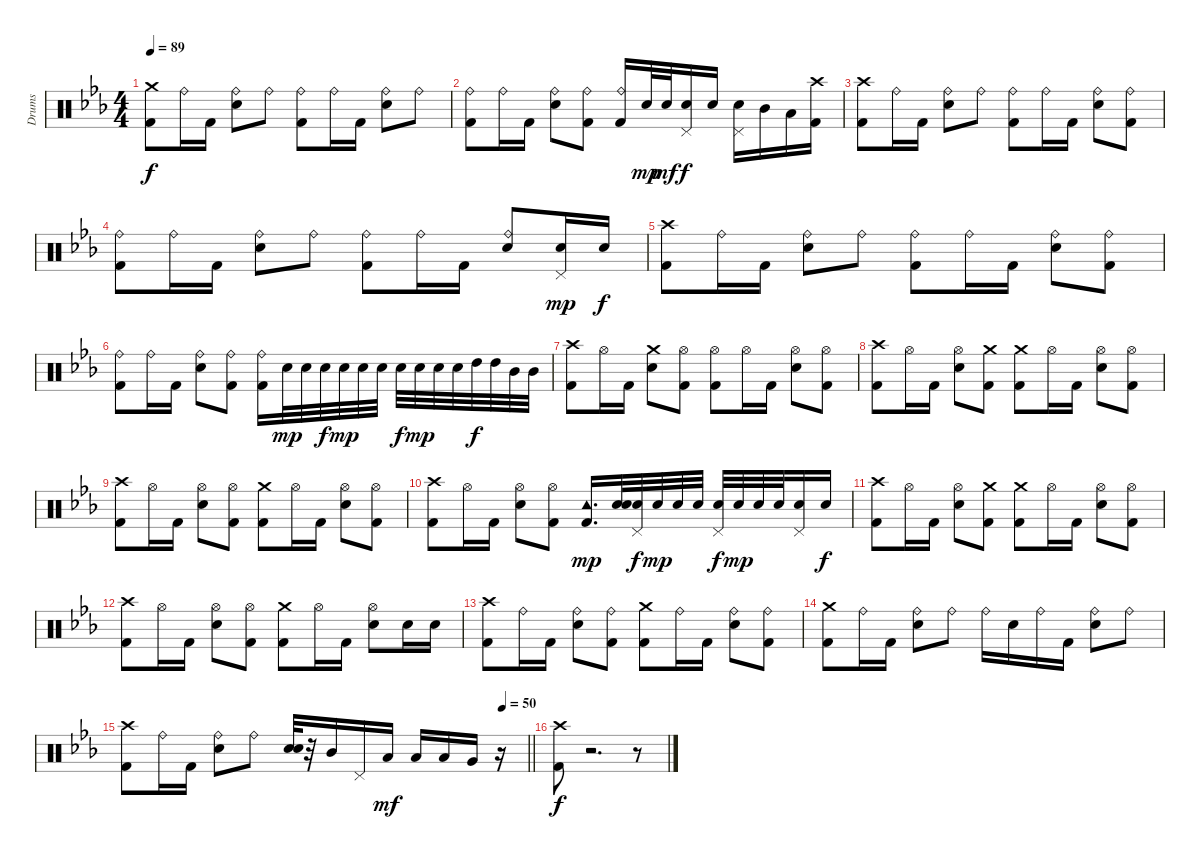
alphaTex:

\track ("Drums" "Drums") {instrument percussion}
\staff {score}
\articulation defaults
\ts (4 4)
\tempo 89
\clef neutral
\ks cminor
("Kick (hit) 2" "Crash medium (hit)").8{dy f} "Ride (bell)".16 "Kick (hit) 2".16 ("Electric Snare (hit)" "Ride (bell)").8 "Ride (bell)".8 ("Kick (hit) 2" "Ride (bell)").8 "Ride (bell)".16 "Kick (hit) 2".16 ("Electric Snare (hit)" "Ride (bell)").8 "Ride (bell)".8 |
("Kick (hit) 2" "Ride (bell)").8 "Ride (bell)".16 "Kick (hit) 2".16 ("Electric Snare (hit)" "Ride (bell)").8 ("Kick (hit) 2" "Ride (bell)").8 ("Kick (hit) 2" "Ride (bell)").16 "Electric Snare (hit)".32{dy mp} "Electric Snare (hit)".32{dy mf} ("Pedal Hi-Hat (hit)" "Electric Snare (hit)").16{dy f} "Electric Snare (hit)".16 ("Electric Snare (hit)" "Pedal Hi-Hat (hit)").16 "Mid Tom (hit)".16 "Low Tom (hit)".16 ("Kick (hit) 2" "Crash high (hit)").16 |
("Crash high (hit)" "Kick (hit) 2").8 "Ride (bell)".16 "Kick (hit) 2".16 ("Electric Snare (hit)" "Ride (bell)").8 "Ride (bell)".8 ("Kick (hit) 2" "Ride (bell)").8 "Ride (bell)".16 "Kick (hit) 2".16 ("Electric Snare (hit)" "Ride (bell)").8 ("Kick (hit) 2" "Ride (bell)").8 |
("Kick (hit) 2" "Ride (bell)").8 "Ride (bell)".16 "Kick (hit) 2".16 ("Electric Snare (hit)" "Ride (bell)").8 "Ride (bell)".8 ("Kick (hit) 2" "Ride (bell)").8 "Ride (bell)".16 "Kick (hit) 2".16 ("Electric Snare (hit)" "Ride (bell)").8 ("Electric Snare (hit)" "Pedal Hi-Hat (hit)").16{dy mp} "Electric Snare (hit)".16{dy f} |
("Kick (hit) 2" "Crash high (hit)").8 "Ride (bell)".16 "Kick (hit) 2".16 ("Electric Snare (hit)" "Ride (bell)").8 "Ride (bell)".8 ("Kick (hit) 2" "Ride (bell)").8 "Ride (bell)".16 "Kick (hit) 2".16 ("Electric Snare (hit)" "Ride (bell)").8 ("Kick (hit) 2" "Ride (bell)").8 |
("Kick (hit) 2" "Ride (bell)").8 "Ride (bell)".16 "Kick (hit) 2".16 ("Electric Snare (hit)" "Ride (bell)").8 ("Kick (hit) 2" "Ride (bell)").8 ("Kick (hit) 2" "Ride (bell)").16 "Electric Snare (hit)".32{dy mp} "Electric Snare (hit)".32 "Electric Snare (hit)".32{dy f} "Electric Snare (hit)".32{dy mp} "Electric Snare (hit)".32 "Electric Snare (hit)".32 "Electric Snare (hit)".32{dy f} "Electric Snare (hit)".32{dy mp} "Electric Snare (hit)".32 "Electric Snare (hit)".32 "High Tom (hit)".32{dy f} "High Tom (hit)".32 "Mid Tom (hit)".32 "Mid Tom (hit)".32 |
("Crash high (hit)" "Kick (hit) 2").8 "Hi-Hat (open)".16 "Kick (hit) 2".16 ("Electric Snare (hit)" "Crash medium (hit)").8 ("Kick (hit) 2" "Hi-Hat (open)").8 ("Kick (hit) 2" "Hi-Hat (open)").8 "Hi-Hat (open)".16 "Kick (hit) 2".16 ("Electric Snare (hit)" "Hi-Hat (open)").8 ("Kick (hit) 2" "Hi-Hat (open)").8 |
("Kick (hit) 2" "Crash high (hit)").8 "Hi-Hat (open)".16 "Kick (hit) 2".16 ("Electric Snare (hit)" "Hi-Hat (open)").8 ("Kick (hit) 2" "Crash medium (hit)").8 ("Kick (hit) 2" "Crash medium (hit)").8 "Hi-Hat (open)".16 "Kick (hit) 2".16 ("Electric Snare (hit)" "Hi-Hat (open)").8 ("Kick (hit) 2" "Hi-Hat (open)").8 |
("Crash high (hit)" "Kick (hit) 2").8 "Hi-Hat (open)".16 "Kick (hit) 2".16 ("Electric Snare (hit)" "Hi-Hat (open)").8 ("Kick (hit) 2" "Hi-Hat (open)").8 ("Kick (hit) 2" "Crash medium (hit)").8 "Hi-Hat (open)".16 "Kick (hit) 2".16 ("Electric Snare (hit)" "Hi-Hat (open)").8 ("Kick (hit) 2" "Hi-Hat (open)").8 |
("Kick (hit) 2" "Crash high (hit)").8 "Hi-Hat (open)".16 "Kick (hit) 2".16 ("Electric Snare (hit)" "Hi-Hat (open)").8 ("Kick (hit) 2" "Hi-Hat (open)").8 ("Kick (hit) 2" "Tambourine (hit)").16{d dy mp} ("Electric Snare (hit)" "Electric Snare (hit)").32 ("Pedal Hi-Hat (hit)" "Electric Snare (hit)").32{dy f} "Electric Snare (hit)".32{dy mp} "Electric Snare (hit)".32 "Electric Snare (hit)".32 ("Pedal Hi-Hat (hit)" "Electric Snare (hit)").32{dy f} "Electric Snare (hit)".32{dy mp} "Electric Snare (hit)".32 "Electric Snare (hit)".32 ("Electric Snare (hit)" "Pedal Hi-Hat (hit)").16 "Electric Snare (hit)".16{dy f} |
("Crash high (hit)" "Kick (hit) 2").8 "Hi-Hat (open)".16 "Kick (hit) 2".16 ("Electric Snare (hit)" "Hi-Hat (open)").8 ("Kick (hit) 2" "Crash medium (hit)").8 ("Kick (hit) 2" "Crash medium (hit)").8 "Hi-Hat (open)".16 "Kick (hit) 2".16 ("Electric Snare (hit)" "Hi-Hat (open)").8 ("Kick (hit) 2" "Hi-Hat (open)").8 |
("Crash high (hit)" "Kick (hit) 2").8 "Hi-Hat (open)".16 "Kick (hit) 2".16 ("Electric Snare (hit)" "Hi-Hat (open)").8 ("Kick (hit) 2" "Hi-Hat (open)").8 ("Kick (hit) 2" "Crash medium (hit)").8 "Hi-Hat (open)".16 "Kick (hit) 2".16 ("Electric Snare (hit)" "Hi-Hat (open)").8 "Electric Snare (hit)".16 "Electric Snare (hit)".16 |
("Crash high (hit)" "Kick (hit) 2").8 "Ride (bell)".16 "Kick (hit) 2".16 ("Electric Snare (hit)" "Ride (bell)").8 ("Ride (bell)" "Kick (hit) 2").8 ("Kick (hit) 2" "Crash medium (hit)").8 "Ride (bell)".16 "Kick (hit) 2".16 ("Electric Snare (hit)" "Ride (bell)").8 ("Kick (hit) 2" "Ride (bell)").8 |
("Kick (hit) 2" "Crash medium (hit)").8 "Ride (bell)".16 "Kick (hit) 2".16 ("Electric Snare (hit)" "Ride (bell)").8 "Ride (bell)".8 "Ride (bell)".16 "Electric Snare (hit)".16 "Ride (bell)".16 "Kick (hit) 2".16 ("Electric Snare (hit)" "Ride (bell)").8 "Ride (bell)".8 |
\tempo (50 0.9375)
\barLineRight lightlight
("Kick (hit) 2" "Crash high (hit)").8 "Ride (bell)".16 "Kick (hit) 2".16 ("Electric Snare (hit)" "Ride (bell)").8 "Ride (bell)".8 ("Electric Snare (hit)" "Electric Snare (hit)").32 r.32 "Mid Tom (hit)".16 "Pedal Hi-Hat (hit)".16 "Low Tom (hit)".16{dy mf} "Low Tom (hit)".16 "Low Tom (hit)".16 "Very Low Tom (hit)".16 r.16 |
("Crash high (hit)" "Kick (hit) 2").8{dy f} r.2{d} r.8
